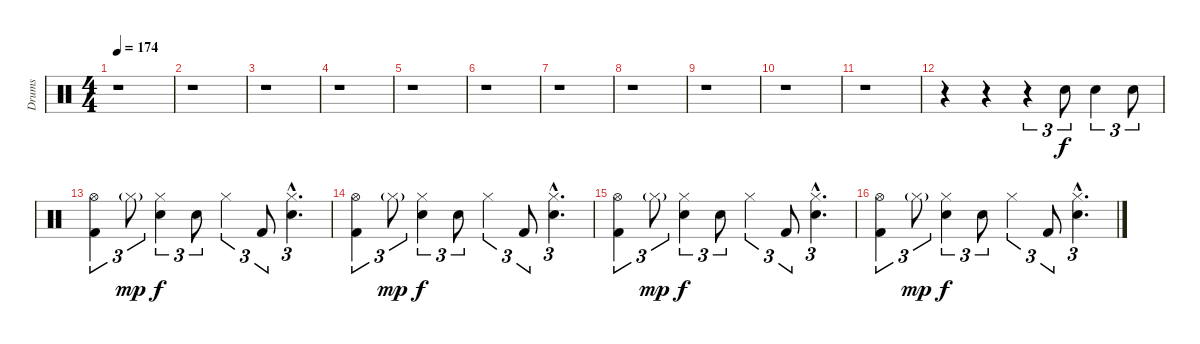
\track ("Drums" "Drums") {instrument percussion}
\staff {score}
\articulation defaults
\ts (4 4)
\tempo 174
\clef neutral
\ks c
r.1{dy f} |
r.1 |
r.1 |
r.1 |
r.1 |
r.1 |
r.1 |
r.1 |
r.1 |
r.1 |
r.1 |
r.4 r.4 r.4{tu (3 2)} "Electric Snare (hit)".8{tu (3 2)} "Electric Snare (hit)".4{tu (3 2)} "Electric Snare (hit)".8{tu (3 2)} |
("Hi-Hat (open)" "Kick (hit) 2").4{tu (3 2)} "Hi-Hat (closed)"{g}.8{tu (3 2) dy mp} ("Hi-Hat (closed)" "Electric Snare (hit)").4{tu (3 2) dy f} "Electric Snare (hit)".8{tu (3 2)} "Hi-Hat (closed)".4{tu (3 2)} "Kick (hit) 2".8{tu (3 2)} ("Hi-Hat (closed)"{hac} "Electric Snare (hit)"{hac}).4{d tu (3 2)} |
("Hi-Hat (open)" "Kick (hit) 2").4{tu (3 2)} "Hi-Hat (closed)"{g}.8{tu (3 2) dy mp} ("Hi-Hat (closed)" "Electric Snare (hit)").4{tu (3 2) dy f} "Electric Snare (hit)".8{tu (3 2)} "Hi-Hat (closed)".4{tu (3 2)} "Kick (hit) 2".8{tu (3 2)} ("Hi-Hat (closed)"{hac} "Electric Snare (hit)"{hac}).4{d tu (3 2)} |
("Hi-Hat (open)" "Kick (hit) 2").4{tu (3 2)} "Hi-Hat (closed)"{g}.8{tu (3 2) dy mp} ("Hi-Hat (closed)" "Electric Snare (hit)").4{tu (3 2) dy f} "Electric Snare (hit)".8{tu (3 2)} "Hi-Hat (closed)".4{tu (3 2)} "Kick (hit) 2".8{tu (3 2)} ("Hi-Hat (closed)"{hac} "Electric Snare (hit)"{hac}).4{d tu (3 2)} |
("Hi-Hat (open)" "Kick (hit) 2").4{tu (3 2)} "Hi-Hat (closed)"{g}.8{tu (3 2) dy mp} ("Hi-Hat (closed)" "Electric Snare (hit)").4{tu (3 2) dy f} "Electric Snare (hit)".8{tu (3 2)} "Hi-Hat (closed)".4{tu (3 2)} "Kick (hit) 2".8{tu (3 2)} ("Hi-Hat (closed)"{hac} "Electric Snare (hit)"{hac}).4{d tu (3 2)}
